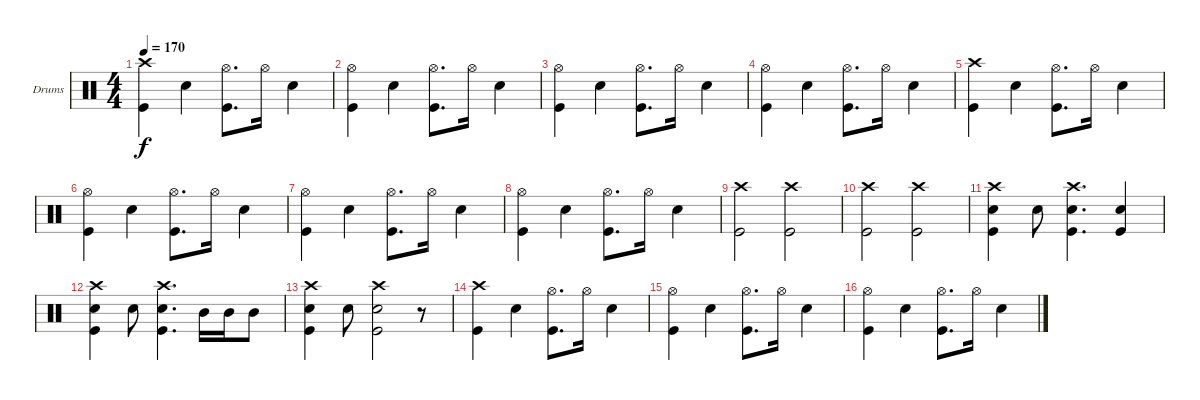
\bracketExtendMode groupsimilarinstruments
\firstSystemTrackNameOrientation horizontal
\otherSystemsTrackNameOrientation horizontal
\track ("Batterie - Anders Johansson" "Drums") {instrument percussion}
\staff {score}
\articulation defaults
\ts (4 4)
\beaming (8 2 2 2 2)
\tempo 170
\clef neutral
\ks c
("Crash high (hit)" "Kick (hit)").4{dy f} "Snare (hit) 2".4 ("Hi-Hat (open)" "Kick (hit)").8{d} "Hi-Hat (open)".16 "Snare (hit) 2".4 |
("Hi-Hat (open)" "Kick (hit)").4 "Snare (hit) 2".4 ("Hi-Hat (open)" "Kick (hit)").8{d} "Hi-Hat (open)".16 "Snare (hit) 2".4 |
("Hi-Hat (open)" "Kick (hit)").4 "Snare (hit) 2".4 ("Hi-Hat (open)" "Kick (hit)").8{d} "Hi-Hat (open)".16 "Snare (hit) 2".4 |
("Hi-Hat (open)" "Kick (hit)").4 "Snare (hit) 2".4 ("Hi-Hat (open)" "Kick (hit)").8{d} "Hi-Hat (open)".16 "Snare (hit) 2".4 |
("Crash high (hit)" "Kick (hit)").4 "Snare (hit) 2".4 ("Hi-Hat (open)" "Kick (hit)").8{d} "Hi-Hat (open)".16 "Snare (hit) 2".4 |
("Hi-Hat (open)" "Kick (hit)").4 "Snare (hit) 2".4 ("Hi-Hat (open)" "Kick (hit)").8{d} "Hi-Hat (open)".16 "Snare (hit) 2".4 |
("Hi-Hat (open)" "Kick (hit)").4 "Snare (hit) 2".4 ("Hi-Hat (open)" "Kick (hit)").8{d} "Hi-Hat (open)".16 "Snare (hit) 2".4 |
("Hi-Hat (open)" "Kick (hit)").4 "Snare (hit) 2".4 ("Hi-Hat (open)" "Kick (hit)").8{d} "Hi-Hat (open)".16 "Snare (hit) 2".4 |
("Crash high (hit)" "Kick (hit)").2 ("Crash high (hit)" "Kick (hit)").2 |
("Crash high (hit)" "Kick (hit)").2 ("Crash high (hit)" "Kick (hit)").2 |
("Crash high (hit)" "Snare (hit) 2" "Kick (hit)").4 "Snare (hit) 2".8 ("Crash high (hit)" "Snare (hit) 2" "Kick (hit)").4{d} ("Snare (hit) 2" "Kick (hit)").4 |
("Crash high (hit)" "Snare (hit) 2" "Kick (hit)").4 "Snare (hit) 2".8 ("Crash high (hit)" "Snare (hit) 2" "Kick (hit)").4{d} "Mid Tom (hit)".16 "Mid Tom (hit)".16 "Mid Tom (hit)".8 |
("Crash high (hit)" "Snare (hit) 2" "Kick (hit)").4 "Snare (hit) 2".8 ("Crash high (hit)" "Snare (hit) 2" "Kick (hit)").2 r.8 |
("Crash high (hit)" "Kick (hit)").4 "Snare (hit) 2".4 ("Hi-Hat (open)" "Kick (hit)").8{d} "Hi-Hat (open)".16 "Snare (hit) 2".4 |
("Hi-Hat (open)" "Kick (hit)").4 "Snare (hit) 2".4 ("Hi-Hat (open)" "Kick (hit)").8{d} "Hi-Hat (open)".16 "Snare (hit) 2".4 |
("Hi-Hat (open)" "Kick (hit)").4 "Snare (hit) 2".4 ("Hi-Hat (open)" "Kick (hit)").8{d} "Hi-Hat (open)".16 "Snare (hit) 2".4
